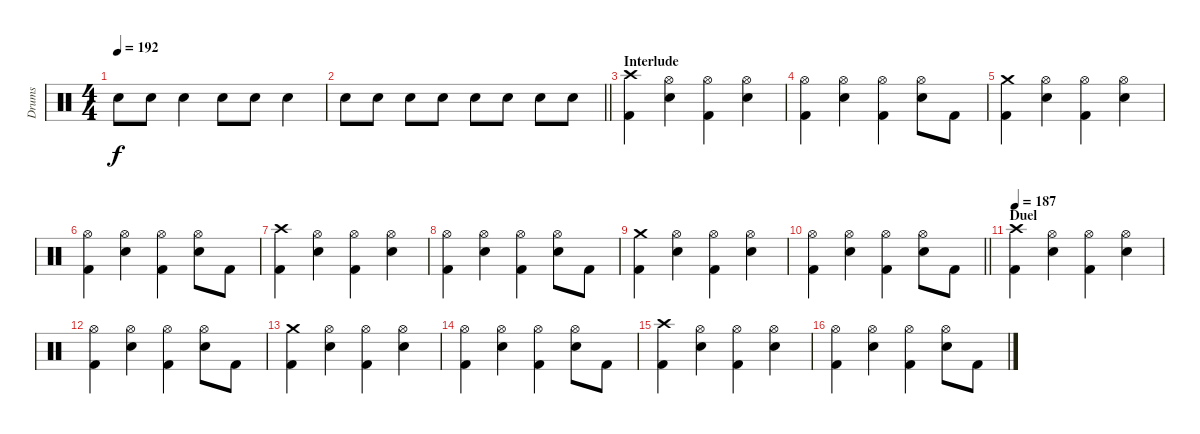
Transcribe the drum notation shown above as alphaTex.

\track ("Drums" "Drums") {instrument percussion}
\staff {score}
\articulation defaults
\ts (4 4)
\tempo 192
\clef neutral
\ks c "Snare (hit) 2".8{dy f} "Snare (hit) 2".8 "Snare (hit) 2".4 "Snare (hit) 2".8 "Snare (hit) 2".8 "Snare (hit) 2".4
|
\barLineRight lightlight "Snare (hit) 2".8 "Snare (hit) 2".8 "Snare (hit) 2".8 "Snare (hit) 2".8 "Snare (hit) 2".8 "Snare (hit) 2".8 "Snare (hit) 2".8 "Snare (hit) 2".8
|
\section ("" "Interlude")
("Crash high (hit)" "Kick (hit) 2").4 ("Hi-Hat (open)" "Snare (hit) 2").4 ("Hi-Hat (open)" "Kick (hit) 2").4 ("Hi-Hat (open)" "Snare (hit) 2").4 |
("Hi-Hat (open)" "Kick (hit) 2").4 ("Hi-Hat (open)" "Snare (hit) 2").4 ("Hi-Hat (open)" "Kick (hit) 2").4 ("Hi-Hat (open)" "Snare (hit) 2").8 "Kick (hit) 2".8 |
("Crash medium (hit)" "Kick (hit) 2").4 ("Hi-Hat (open)" "Snare (hit) 2").4 ("Hi-Hat (open)" "Kick (hit) 2").4 ("Hi-Hat (open)" "Snare (hit) 2").4 |
("Hi-Hat (open)" "Kick (hit) 2").4 ("Hi-Hat (open)" "Snare (hit) 2").4 ("Hi-Hat (open)" "Kick (hit) 2").4 ("Hi-Hat (open)" "Snare (hit) 2").8 "Kick (hit) 2".8 |
("Crash high (hit)" "Kick (hit) 2").4 ("Hi-Hat (open)" "Snare (hit) 2").4 ("Hi-Hat (open)" "Kick (hit) 2").4 ("Hi-Hat (open)" "Snare (hit) 2").4 |
("Hi-Hat (open)" "Kick (hit) 2").4 ("Hi-Hat (open)" "Snare (hit) 2").4 ("Hi-Hat (open)" "Kick (hit) 2").4 ("Hi-Hat (open)" "Snare (hit) 2").8 "Kick (hit) 2".8 |
("Crash medium (hit)" "Kick (hit) 2").4 ("Hi-Hat (open)" "Snare (hit) 2").4 ("Hi-Hat (open)" "Kick (hit) 2").4 ("Hi-Hat (open)" "Snare (hit) 2").4 |
\barLineRight lightlight
("Hi-Hat (open)" "Kick (hit) 2").4 ("Hi-Hat (open)" "Snare (hit) 2").4 ("Hi-Hat (open)" "Kick (hit) 2").4 ("Hi-Hat (open)" "Snare (hit) 2").8 "Kick (hit) 2".8 |
\section ("" "Duel")
\tempo 187
("Crash high (hit)" "Kick (hit) 2").4 ("Hi-Hat (open)" "Snare (hit) 2").4 ("Hi-Hat (open)" "Kick (hit) 2").4 ("Hi-Hat (open)" "Snare (hit) 2").4 |
("Hi-Hat (open)" "Kick (hit) 2").4 ("Hi-Hat (open)" "Snare (hit) 2").4 ("Hi-Hat (open)" "Kick (hit) 2").4 ("Hi-Hat (open)" "Snare (hit) 2").8 "Kick (hit) 2".8 |
("Crash medium (hit)" "Kick (hit) 2").4 ("Hi-Hat (open)" "Snare (hit) 2").4 ("Hi-Hat (open)" "Kick (hit) 2").4 ("Hi-Hat (open)" "Snare (hit) 2").4 |
("Hi-Hat (open)" "Kick (hit) 2").4 ("Hi-Hat (open)" "Snare (hit) 2").4 ("Hi-Hat (open)" "Kick (hit) 2").4 ("Hi-Hat (open)" "Snare (hit) 2").8 "Kick (hit) 2".8 |
("Crash high (hit)" "Kick (hit) 2").4 ("Hi-Hat (open)" "Snare (hit) 2").4 ("Hi-Hat (open)" "Kick (hit) 2").4 ("Hi-Hat (open)" "Snare (hit) 2").4 |
("Hi-Hat (open)" "Kick (hit) 2").4 ("Hi-Hat (open)" "Snare (hit) 2").4 ("Hi-Hat (open)" "Kick (hit) 2").4 ("Hi-Hat (open)" "Snare (hit) 2").8 "Kick (hit) 2".8
